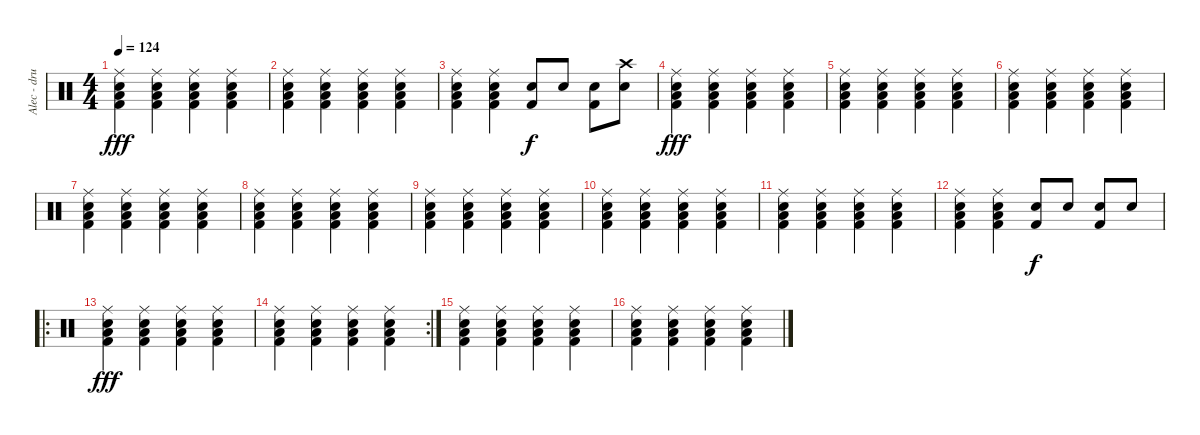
\track ("Alec - drums" "Alec - dru") {instrument percussion}
\staff {score}
\articulation defaults
\ts (4 4)
\tempo 124
\clef neutral
\ks c
("Ride (middle)" "Kick (hit) 2" "Snare (hit) 2" "Low Tom (hit)").4{dy fff} ("Ride (middle)" "Kick (hit) 2" "Snare (hit) 2" "Low Tom (hit)").4 ("Ride (middle)" "Kick (hit) 2" "Snare (hit) 2" "Low Tom (hit)").4 ("Ride (middle)" "Kick (hit) 2" "Snare (hit) 2" "Low Tom (hit)").4 |
("Ride (middle)" "Kick (hit) 2" "Snare (hit) 2" "Low Tom (hit)").4 ("Ride (middle)" "Kick (hit) 2" "Snare (hit) 2" "Low Tom (hit)").4 ("Ride (middle)" "Kick (hit) 2" "Snare (hit) 2" "Low Tom (hit)").4 ("Ride (middle)" "Kick (hit) 2" "Snare (hit) 2" "Low Tom (hit)").4 |
("Ride (middle)" "Kick (hit) 2" "Snare (hit) 2" "Low Tom (hit)").4 ("Ride (middle)" "Kick (hit) 2" "Snare (hit) 2" "Low Tom (hit)").4 ("Kick (hit) 2" "Snare (hit) 2").8{dy f} "Snare (hit) 2".8 ("Kick (hit) 2" "Snare (hit) 2").8 ("Crash high (hit)" "Snare (hit) 2").8 |
("Ride (middle)" "Kick (hit) 2" "Snare (hit) 2" "Low Tom (hit)").4{dy fff} ("Ride (middle)" "Kick (hit) 2" "Snare (hit) 2" "Low Tom (hit)").4 ("Ride (middle)" "Kick (hit) 2" "Snare (hit) 2" "Low Tom (hit)").4 ("Ride (middle)" "Kick (hit) 2" "Snare (hit) 2" "Low Tom (hit)").4 |
("Ride (middle)" "Kick (hit) 2" "Snare (hit) 2" "Low Tom (hit)").4 ("Ride (middle)" "Kick (hit) 2" "Snare (hit) 2" "Low Tom (hit)").4 ("Ride (middle)" "Kick (hit) 2" "Snare (hit) 2" "Low Tom (hit)").4 ("Ride (middle)" "Kick (hit) 2" "Snare (hit) 2" "Low Tom (hit)").4 |
("Ride (middle)" "Kick (hit) 2" "Snare (hit) 2" "Low Tom (hit)").4 ("Ride (middle)" "Kick (hit) 2" "Snare (hit) 2" "Low Tom (hit)").4 ("Ride (middle)" "Kick (hit) 2" "Snare (hit) 2" "Low Tom (hit)").4 ("Ride (middle)" "Kick (hit) 2" "Snare (hit) 2" "Low Tom (hit)").4 |
("Ride (middle)" "Kick (hit) 2" "Snare (hit) 2" "Low Tom (hit)").4 ("Ride (middle)" "Kick (hit) 2" "Snare (hit) 2" "Low Tom (hit)").4 ("Ride (middle)" "Kick (hit) 2" "Snare (hit) 2" "Low Tom (hit)").4 ("Ride (middle)" "Kick (hit) 2" "Snare (hit) 2" "Low Tom (hit)").4 |
("Ride (middle)" "Kick (hit) 2" "Snare (hit) 2" "Low Tom (hit)").4 ("Ride (middle)" "Kick (hit) 2" "Snare (hit) 2" "Low Tom (hit)").4 ("Ride (middle)" "Kick (hit) 2" "Snare (hit) 2" "Low Tom (hit)").4 ("Ride (middle)" "Kick (hit) 2" "Snare (hit) 2" "Low Tom (hit)").4 |
("Ride (middle)" "Kick (hit) 2" "Snare (hit) 2" "Low Tom (hit)").4 ("Ride (middle)" "Kick (hit) 2" "Snare (hit) 2" "Low Tom (hit)").4 ("Ride (middle)" "Kick (hit) 2" "Snare (hit) 2" "Low Tom (hit)").4 ("Ride (middle)" "Kick (hit) 2" "Snare (hit) 2" "Low Tom (hit)").4 |
("Ride (middle)" "Kick (hit) 2" "Snare (hit) 2" "Low Tom (hit)").4 ("Ride (middle)" "Kick (hit) 2" "Snare (hit) 2" "Low Tom (hit)").4 ("Ride (middle)" "Kick (hit) 2" "Snare (hit) 2" "Low Tom (hit)").4 ("Ride (middle)" "Kick (hit) 2" "Snare (hit) 2" "Low Tom (hit)").4 |
("Ride (middle)" "Kick (hit) 2" "Snare (hit) 2" "Low Tom (hit)").4 ("Ride (middle)" "Kick (hit) 2" "Snare (hit) 2" "Low Tom (hit)").4 ("Ride (middle)" "Kick (hit) 2" "Snare (hit) 2" "Low Tom (hit)").4 ("Ride (middle)" "Kick (hit) 2" "Snare (hit) 2" "Low Tom (hit)").4 |
("Ride (middle)" "Kick (hit) 2" "Snare (hit) 2" "Low Tom (hit)").4 ("Ride (middle)" "Kick (hit) 2" "Snare (hit) 2" "Low Tom (hit)").4 ("Kick (hit) 2" "Snare (hit) 2").8{dy f} "Snare (hit) 2".8 ("Kick (hit) 2" "Snare (hit) 2").8 "Snare (hit) 2".8 |
\ro
("Ride (middle)" "Kick (hit) 2" "Snare (hit) 2" "Low Tom (hit)").4{dy fff} ("Ride (middle)" "Kick (hit) 2" "Snare (hit) 2" "Low Tom (hit)").4 ("Ride (middle)" "Kick (hit) 2" "Snare (hit) 2" "Low Tom (hit)").4 ("Ride (middle)" "Kick (hit) 2" "Snare (hit) 2" "Low Tom (hit)").4 |
\rc 2
("Ride (middle)" "Kick (hit) 2" "Snare (hit) 2" "Low Tom (hit)").4 ("Ride (middle)" "Kick (hit) 2" "Snare (hit) 2" "Low Tom (hit)").4 ("Ride (middle)" "Kick (hit) 2" "Snare (hit) 2" "Low Tom (hit)").4 ("Ride (middle)" "Kick (hit) 2" "Snare (hit) 2" "Low Tom (hit)").4 |
("Ride (middle)" "Kick (hit) 2" "Snare (hit) 2" "Low Tom (hit)").4 ("Ride (middle)" "Kick (hit) 2" "Snare (hit) 2" "Low Tom (hit)").4 ("Ride (middle)" "Kick (hit) 2" "Snare (hit) 2" "Low Tom (hit)").4 ("Ride (middle)" "Kick (hit) 2" "Snare (hit) 2" "Low Tom (hit)").4 |
("Ride (middle)" "Kick (hit) 2" "Snare (hit) 2" "Low Tom (hit)").4 ("Ride (middle)" "Kick (hit) 2" "Snare (hit) 2" "Low Tom (hit)").4 ("Ride (middle)" "Kick (hit) 2" "Snare (hit) 2" "Low Tom (hit)").4 ("Ride (middle)" "Kick (hit) 2" "Snare (hit) 2" "Low Tom (hit)").4
